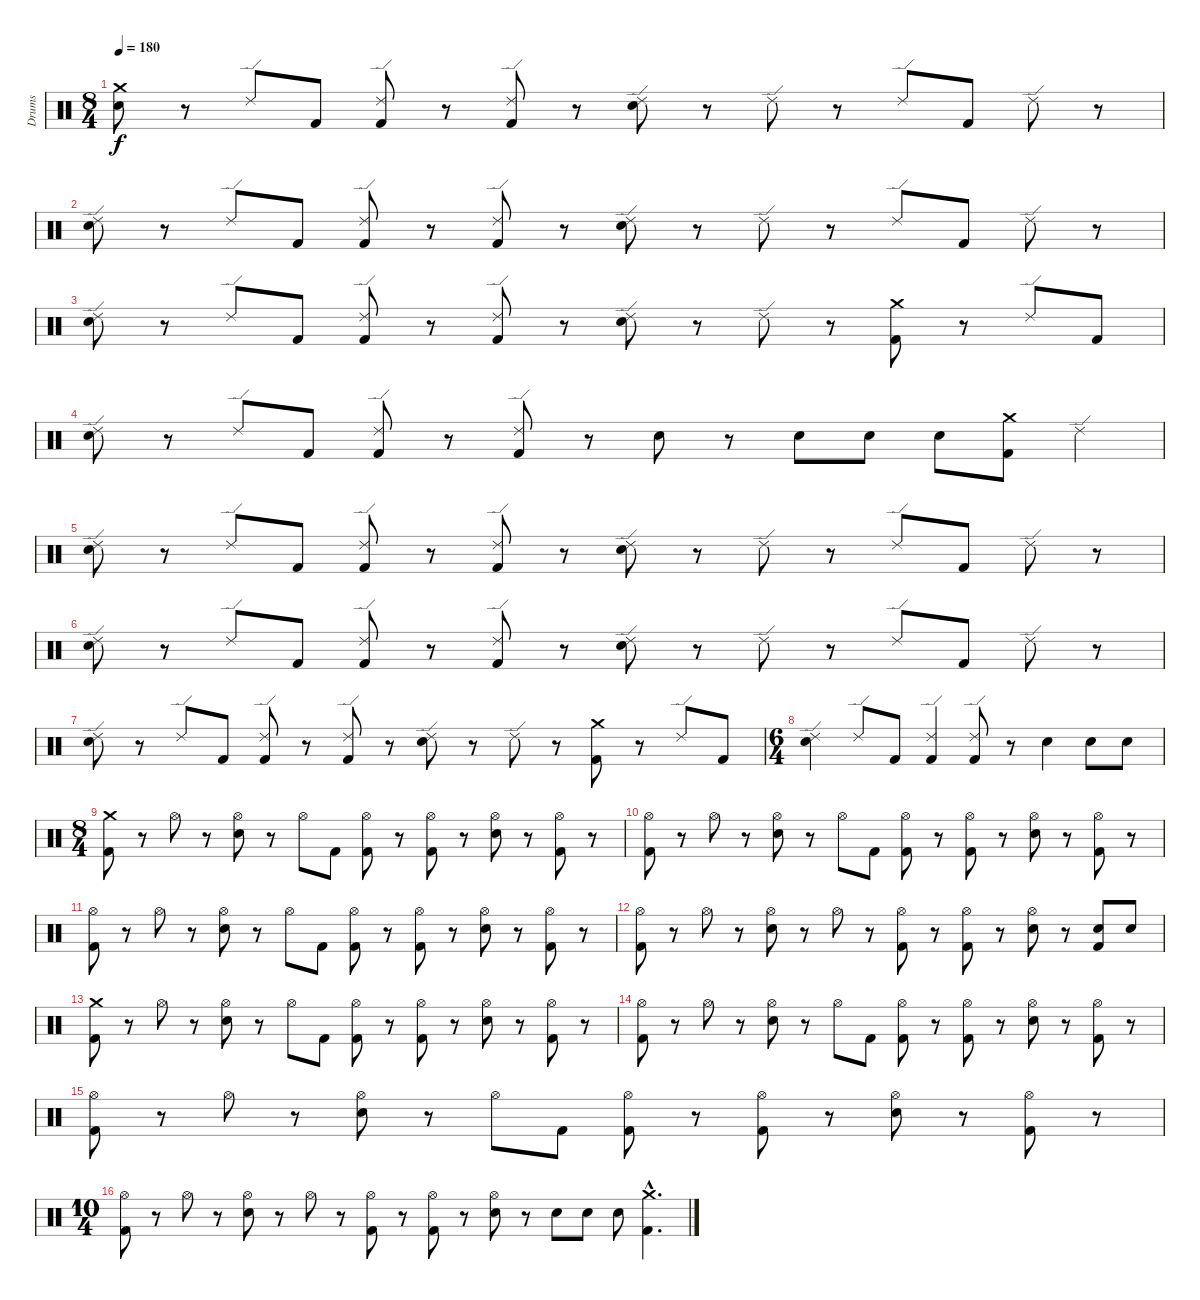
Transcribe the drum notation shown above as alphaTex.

\track ("Drums" "Drums") {instrument percussion}
\staff {score}
\articulation defaults
\ts (8 4)
\tempo 180
\clef neutral
\ks c
("Crash medium (hit)" "Snare (hit) 2").8{dy f} r.8 "Ride (edge) 2".8 "Kick (hit) 2".8 ("Ride (edge) 2" "Kick (hit) 2").8 r.8 ("Kick (hit) 2" "Ride (edge) 2").8 r.8 ("Ride (edge) 2" "Snare (hit) 2").8 r.8 "Ride (edge) 2".8 r.8 "Ride (edge) 2".8 "Kick (hit) 2".8 "Ride (edge) 2".8 r.8 |
("Ride (edge) 2" "Snare (hit) 2").8 r.8 "Ride (edge) 2".8 "Kick (hit) 2".8 ("Ride (edge) 2" "Kick (hit) 2").8 r.8 ("Ride (edge) 2" "Kick (hit) 2").8 r.8 ("Ride (edge) 2" "Snare (hit) 2").8 r.8 "Ride (edge) 2".8 r.8 "Ride (edge) 2".8 "Kick (hit) 2".8 "Ride (edge) 2".8 r.8 |
("Ride (edge) 2" "Snare (hit) 2").8 r.8 "Ride (edge) 2".8 "Kick (hit) 2".8 ("Ride (edge) 2" "Kick (hit) 2").8 r.8 ("Ride (edge) 2" "Kick (hit) 2").8 r.8 ("Ride (edge) 2" "Snare (hit) 2").8 r.8 "Ride (edge) 2".8 r.8 ("Crash medium (hit)" "Kick (hit) 2").8 r.8 "Ride (edge) 2".8 "Kick (hit) 2".8 |
("Ride (edge) 2" "Snare (hit) 2").8 r.8 "Ride (edge) 2".8 "Kick (hit) 2".8 ("Ride (edge) 2" "Kick (hit) 2").8 r.8 ("Ride (edge) 2" "Kick (hit) 2").8 r.8 "Snare (hit) 2".8 r.8 "Snare (hit) 2".8 "Snare (hit) 2".8 "Snare (hit) 2".8 ("Crash medium (hit)" "Kick (hit) 2").8 "Ride (edge) 2".4 |
("Ride (edge) 2" "Snare (hit) 2").8 r.8 "Ride (edge) 2".8 "Kick (hit) 2".8 ("Ride (edge) 2" "Kick (hit) 2").8 r.8 ("Kick (hit) 2" "Ride (edge) 2").8 r.8 ("Ride (edge) 2" "Snare (hit) 2").8 r.8 "Ride (edge) 2".8 r.8 "Ride (edge) 2".8 "Kick (hit) 2".8 "Ride (edge) 2".8 r.8 |
("Ride (edge) 2" "Snare (hit) 2").8 r.8 "Ride (edge) 2".8 "Kick (hit) 2".8 ("Ride (edge) 2" "Kick (hit) 2").8 r.8 ("Ride (edge) 2" "Kick (hit) 2").8 r.8 ("Ride (edge) 2" "Snare (hit) 2").8 r.8 "Ride (edge) 2".8 r.8 "Ride (edge) 2".8 "Kick (hit) 2".8 "Ride (edge) 2".8 r.8 |
("Ride (edge) 2" "Snare (hit) 2").8 r.8 "Ride (edge) 2".8 "Kick (hit) 2".8 ("Ride (edge) 2" "Kick (hit) 2").8 r.8 ("Ride (edge) 2" "Kick (hit) 2").8 r.8 ("Ride (edge) 2" "Snare (hit) 2").8 r.8 "Ride (edge) 2".8 r.8 ("Crash medium (hit)" "Kick (hit) 2").8 r.8 "Ride (edge) 2".8 "Kick (hit) 2".8 |
\ts (6 4)
("Ride (edge) 2" "Snare (hit) 2").4 "Ride (edge) 2".8 "Kick (hit) 2".8 ("Ride (edge) 2" "Kick (hit) 2").4 ("Ride (edge) 2" "Kick (hit) 2").8 r.8 "Snare (hit) 2".4 "Snare (hit) 2".8 "Snare (hit) 2".8 |
\ts (8 4)
("Crash medium (hit)" "Kick (hit) 2").8 r.8 "Hi-Hat (open)".8 r.8 ("Hi-Hat (open)" "Snare (hit) 2").8 r.8 "Hi-Hat (open)".8 "Kick (hit) 2".8 ("Hi-Hat (open)" "Kick (hit) 2").8 r.8 ("Hi-Hat (open)" "Kick (hit) 2").8 r.8 ("Hi-Hat (open)" "Snare (hit) 2").8 r.8 ("Hi-Hat (open)" "Kick (hit) 2").8 r.8 |
("Hi-Hat (open)" "Kick (hit) 2").8 r.8 "Hi-Hat (open)".8 r.8 ("Hi-Hat (open)" "Snare (hit) 2").8 r.8 "Hi-Hat (open)".8 "Kick (hit) 2".8 ("Hi-Hat (open)" "Kick (hit) 2").8 r.8 ("Hi-Hat (open)" "Kick (hit) 2").8 r.8 ("Hi-Hat (open)" "Snare (hit) 2").8 r.8 ("Hi-Hat (open)" "Kick (hit) 2").8 r.8 |
("Hi-Hat (open)" "Kick (hit) 2").8 r.8 "Hi-Hat (open)".8 r.8 ("Hi-Hat (open)" "Snare (hit) 2").8 r.8 "Hi-Hat (open)".8 "Kick (hit) 2".8 ("Hi-Hat (open)" "Kick (hit) 2").8 r.8 ("Hi-Hat (open)" "Kick (hit) 2").8 r.8 ("Hi-Hat (open)" "Snare (hit) 2").8 r.8 ("Hi-Hat (open)" "Kick (hit) 2").8 r.8 |
("Hi-Hat (open)" "Kick (hit) 2").8 r.8 "Hi-Hat (open)".8 r.8 ("Hi-Hat (open)" "Snare (hit) 2").8 r.8 "Hi-Hat (open)".8 r.8 ("Hi-Hat (open)" "Kick (hit) 2").8 r.8 ("Hi-Hat (open)" "Kick (hit) 2").8 r.8 ("Hi-Hat (open)" "Snare (hit) 2").8 r.8 ("Snare (hit) 2" "Kick (hit) 2").8 "Snare (hit) 2".8 |
("Crash medium (hit)" "Kick (hit) 2").8 r.8 "Hi-Hat (open)".8 r.8 ("Hi-Hat (open)" "Snare (hit) 2").8 r.8 "Hi-Hat (open)".8 "Kick (hit) 2".8 ("Hi-Hat (open)" "Kick (hit) 2").8 r.8 ("Hi-Hat (open)" "Kick (hit) 2").8 r.8 ("Hi-Hat (open)" "Snare (hit) 2").8 r.8 ("Hi-Hat (open)" "Kick (hit) 2").8 r.8 |
("Hi-Hat (open)" "Kick (hit) 2").8 r.8 "Hi-Hat (open)".8 r.8 ("Hi-Hat (open)" "Snare (hit) 2").8 r.8 "Hi-Hat (open)".8 "Kick (hit) 2".8 ("Hi-Hat (open)" "Kick (hit) 2").8 r.8 ("Hi-Hat (open)" "Kick (hit) 2").8 r.8 ("Hi-Hat (open)" "Snare (hit) 2").8 r.8 ("Hi-Hat (open)" "Kick (hit) 2").8 r.8 |
("Hi-Hat (open)" "Kick (hit) 2").8 r.8 "Hi-Hat (open)".8 r.8 ("Hi-Hat (open)" "Snare (hit) 2").8 r.8 "Hi-Hat (open)".8 "Kick (hit) 2".8 ("Hi-Hat (open)" "Kick (hit) 2").8 r.8 ("Hi-Hat (open)" "Kick (hit) 2").8 r.8 ("Hi-Hat (open)" "Snare (hit) 2").8 r.8 ("Hi-Hat (open)" "Kick (hit) 2").8 r.8 |
\ts (10 4)
("Hi-Hat (open)" "Kick (hit) 2").8 r.8 "Hi-Hat (open)".8 r.8 ("Hi-Hat (open)" "Snare (hit) 2").8 r.8 "Hi-Hat (open)".8 r.8 ("Hi-Hat (open)" "Kick (hit) 2").8 r.8 ("Hi-Hat (open)" "Kick (hit) 2").8 r.8 ("Hi-Hat (open)" "Snare (hit) 2").8 r.8 "Snare (hit) 2".8 "Snare (hit) 2".8 "Snare (hit) 2".8 ("Crash medium (hit)"{hac} "Kick (hit) 2"{hac}).4{d}
